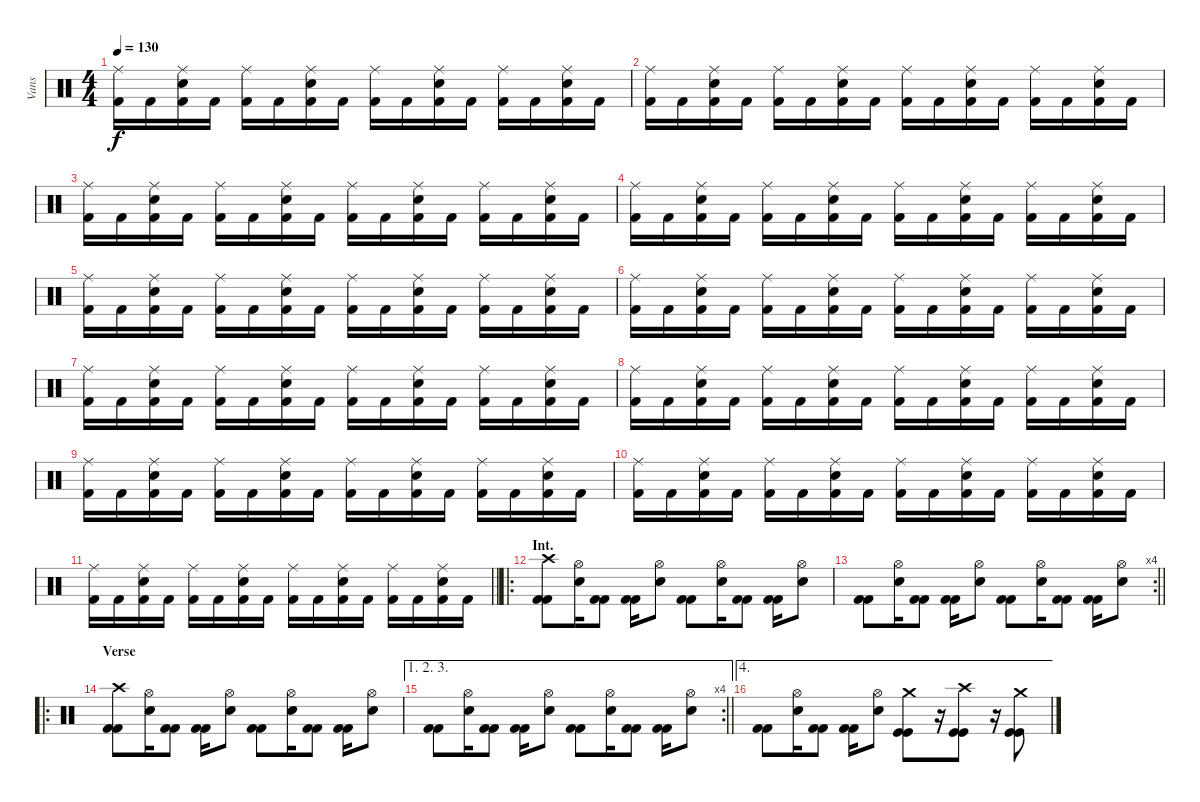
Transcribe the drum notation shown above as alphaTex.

\track ("Vans" "Vans") {instrument percussion}
\staff {score}
\articulation defaults
\ts (4 4)
\tempo 130
\clef neutral
\ks c
("Ride (middle)" "Kick (hit) 2").16{dy f} "Kick (hit) 2".16 ("Ride (middle)" "Kick (hit) 2" "Snare (hit) 2").16 "Kick (hit) 2".16 ("Ride (middle)" "Kick (hit) 2").16 "Kick (hit) 2".16 ("Ride (middle)" "Kick (hit) 2" "Snare (hit) 2").16 "Kick (hit) 2".16 ("Ride (middle)" "Kick (hit) 2").16 "Kick (hit) 2".16 ("Ride (middle)" "Kick (hit) 2" "Snare (hit) 2").16 "Kick (hit) 2".16 ("Ride (middle)" "Kick (hit) 2").16 "Kick (hit) 2".16 ("Ride (middle)" "Kick (hit) 2" "Snare (hit) 2").16 "Kick (hit) 2".16 |
("Ride (middle)" "Kick (hit) 2").16 "Kick (hit) 2".16 ("Ride (middle)" "Kick (hit) 2" "Snare (hit) 2").16 "Kick (hit) 2".16 ("Ride (middle)" "Kick (hit) 2").16 "Kick (hit) 2".16 ("Ride (middle)" "Kick (hit) 2" "Snare (hit) 2").16 "Kick (hit) 2".16 ("Ride (middle)" "Kick (hit) 2").16 "Kick (hit) 2".16 ("Ride (middle)" "Kick (hit) 2" "Snare (hit) 2").16 "Kick (hit) 2".16 ("Ride (middle)" "Kick (hit) 2").16 "Kick (hit) 2".16 ("Ride (middle)" "Kick (hit) 2" "Snare (hit) 2").16 "Kick (hit) 2".16 |
("Ride (middle)" "Kick (hit) 2").16 "Kick (hit) 2".16 ("Ride (middle)" "Kick (hit) 2" "Snare (hit) 2").16 "Kick (hit) 2".16 ("Ride (middle)" "Kick (hit) 2").16 "Kick (hit) 2".16 ("Ride (middle)" "Kick (hit) 2" "Snare (hit) 2").16 "Kick (hit) 2".16 ("Ride (middle)" "Kick (hit) 2").16 "Kick (hit) 2".16 ("Ride (middle)" "Kick (hit) 2" "Snare (hit) 2").16 "Kick (hit) 2".16 ("Ride (middle)" "Kick (hit) 2").16 "Kick (hit) 2".16 ("Ride (middle)" "Kick (hit) 2" "Snare (hit) 2").16 "Kick (hit) 2".16 |
("Ride (middle)" "Kick (hit) 2").16 "Kick (hit) 2".16 ("Ride (middle)" "Kick (hit) 2" "Snare (hit) 2").16 "Kick (hit) 2".16 ("Ride (middle)" "Kick (hit) 2").16 "Kick (hit) 2".16 ("Ride (middle)" "Kick (hit) 2" "Snare (hit) 2").16 "Kick (hit) 2".16 ("Ride (middle)" "Kick (hit) 2").16 "Kick (hit) 2".16 ("Ride (middle)" "Kick (hit) 2" "Snare (hit) 2").16 "Kick (hit) 2".16 ("Ride (middle)" "Kick (hit) 2").16 "Kick (hit) 2".16 ("Ride (middle)" "Kick (hit) 2" "Snare (hit) 2").16 "Kick (hit) 2".16 |
("Ride (middle)" "Kick (hit) 2").16 "Kick (hit) 2".16 ("Ride (middle)" "Kick (hit) 2" "Snare (hit) 2").16 "Kick (hit) 2".16 ("Ride (middle)" "Kick (hit) 2").16 "Kick (hit) 2".16 ("Ride (middle)" "Kick (hit) 2" "Snare (hit) 2").16 "Kick (hit) 2".16 ("Ride (middle)" "Kick (hit) 2").16 "Kick (hit) 2".16 ("Ride (middle)" "Kick (hit) 2" "Snare (hit) 2").16 "Kick (hit) 2".16 ("Ride (middle)" "Kick (hit) 2").16 "Kick (hit) 2".16 ("Ride (middle)" "Kick (hit) 2" "Snare (hit) 2").16 "Kick (hit) 2".16 |
("Ride (middle)" "Kick (hit) 2").16 "Kick (hit) 2".16 ("Ride (middle)" "Kick (hit) 2" "Snare (hit) 2").16 "Kick (hit) 2".16 ("Ride (middle)" "Kick (hit) 2").16 "Kick (hit) 2".16 ("Ride (middle)" "Kick (hit) 2" "Snare (hit) 2").16 "Kick (hit) 2".16 ("Ride (middle)" "Kick (hit) 2").16 "Kick (hit) 2".16 ("Ride (middle)" "Kick (hit) 2" "Snare (hit) 2").16 "Kick (hit) 2".16 ("Ride (middle)" "Kick (hit) 2").16 "Kick (hit) 2".16 ("Ride (middle)" "Kick (hit) 2" "Snare (hit) 2").16 "Kick (hit) 2".16 |
("Ride (middle)" "Kick (hit) 2").16 "Kick (hit) 2".16 ("Ride (middle)" "Kick (hit) 2" "Snare (hit) 2").16 "Kick (hit) 2".16 ("Ride (middle)" "Kick (hit) 2").16 "Kick (hit) 2".16 ("Ride (middle)" "Kick (hit) 2" "Snare (hit) 2").16 "Kick (hit) 2".16 ("Ride (middle)" "Kick (hit) 2").16 "Kick (hit) 2".16 ("Ride (middle)" "Kick (hit) 2" "Snare (hit) 2").16 "Kick (hit) 2".16 ("Ride (middle)" "Kick (hit) 2").16 "Kick (hit) 2".16 ("Ride (middle)" "Kick (hit) 2" "Snare (hit) 2").16 "Kick (hit) 2".16 |
("Ride (middle)" "Kick (hit) 2").16 "Kick (hit) 2".16 ("Ride (middle)" "Kick (hit) 2" "Snare (hit) 2").16 "Kick (hit) 2".16 ("Ride (middle)" "Kick (hit) 2").16 "Kick (hit) 2".16 ("Ride (middle)" "Kick (hit) 2" "Snare (hit) 2").16 "Kick (hit) 2".16 ("Ride (middle)" "Kick (hit) 2").16 "Kick (hit) 2".16 ("Ride (middle)" "Kick (hit) 2" "Snare (hit) 2").16 "Kick (hit) 2".16 ("Ride (middle)" "Kick (hit) 2").16 "Kick (hit) 2".16 ("Ride (middle)" "Kick (hit) 2" "Snare (hit) 2").16 "Kick (hit) 2".16 |
("Ride (middle)" "Kick (hit) 2").16 "Kick (hit) 2".16 ("Ride (middle)" "Kick (hit) 2" "Snare (hit) 2").16 "Kick (hit) 2".16 ("Ride (middle)" "Kick (hit) 2").16 "Kick (hit) 2".16 ("Ride (middle)" "Kick (hit) 2" "Snare (hit) 2").16 "Kick (hit) 2".16 ("Ride (middle)" "Kick (hit) 2").16 "Kick (hit) 2".16 ("Ride (middle)" "Kick (hit) 2" "Snare (hit) 2").16 "Kick (hit) 2".16 ("Ride (middle)" "Kick (hit) 2").16 "Kick (hit) 2".16 ("Ride (middle)" "Kick (hit) 2" "Snare (hit) 2").16 "Kick (hit) 2".16 |
("Ride (middle)" "Kick (hit) 2").16 "Kick (hit) 2".16 ("Ride (middle)" "Kick (hit) 2" "Snare (hit) 2").16 "Kick (hit) 2".16 ("Ride (middle)" "Kick (hit) 2").16 "Kick (hit) 2".16 ("Ride (middle)" "Kick (hit) 2" "Snare (hit) 2").16 "Kick (hit) 2".16 ("Ride (middle)" "Kick (hit) 2").16 "Kick (hit) 2".16 ("Ride (middle)" "Kick (hit) 2" "Snare (hit) 2").16 "Kick (hit) 2".16 ("Ride (middle)" "Kick (hit) 2").16 "Kick (hit) 2".16 ("Ride (middle)" "Kick (hit) 2" "Snare (hit) 2").16 "Kick (hit) 2".16 |
\barLineRight lightlight
("Ride (middle)" "Kick (hit) 2").16 "Kick (hit) 2".16 ("Ride (middle)" "Kick (hit) 2" "Snare (hit) 2").16 "Kick (hit) 2".16 ("Ride (middle)" "Kick (hit) 2").16 "Kick (hit) 2".16 ("Ride (middle)" "Kick (hit) 2" "Snare (hit) 2").16 "Kick (hit) 2".16 ("Ride (middle)" "Kick (hit) 2").16 "Kick (hit) 2".16 ("Ride (middle)" "Kick (hit) 2" "Snare (hit) 2").16 "Kick (hit) 2".16 ("Ride (middle)" "Kick (hit) 2").16 "Kick (hit) 2".16 ("Ride (middle)" "Kick (hit) 2" "Snare (hit) 2").16 "Kick (hit) 2".16 |
\ro
\section ("" "Int.")
("Crash high (hit)" "Kick (hit) 2" "Kick (hit) 2").8 ("Hi-Hat (open)" "Snare (hit) 2").16 ("Kick (hit) 2" "Kick (hit) 2").8 ("Kick (hit) 2" "Kick (hit) 2").16 ("Hi-Hat (open)" "Snare (hit) 2").8 ("Kick (hit) 2" "Kick (hit) 2").8 ("Hi-Hat (open)" "Snare (hit) 2").16 ("Kick (hit) 2" "Kick (hit) 2").8 ("Kick (hit) 2" "Kick (hit) 2").16 ("Hi-Hat (open)" "Snare (hit) 2").8 |
\rc 4
\barLineRight lightlight
("Kick (hit) 2" "Kick (hit) 2").8 ("Hi-Hat (open)" "Snare (hit) 2").16 ("Kick (hit) 2" "Kick (hit) 2").8 ("Kick (hit) 2" "Kick (hit) 2").16 ("Hi-Hat (open)" "Snare (hit) 2").8 ("Kick (hit) 2" "Kick (hit) 2").8 ("Hi-Hat (open)" "Snare (hit) 2").16 ("Kick (hit) 2" "Kick (hit) 2").8 ("Kick (hit) 2" "Kick (hit) 2").16 ("Hi-Hat (open)" "Snare (hit) 2").8 |
\ro
\section ("" "Verse")
("Crash high (hit)" "Kick (hit) 2" "Kick (hit) 2").8 ("Hi-Hat (open)" "Snare (hit) 2").16 ("Kick (hit) 2" "Kick (hit) 2").8 ("Kick (hit) 2" "Kick (hit) 2").16 ("Hi-Hat (open)" "Snare (hit) 2").8 ("Kick (hit) 2" "Kick (hit) 2").8 ("Hi-Hat (open)" "Snare (hit) 2").16 ("Kick (hit) 2" "Kick (hit) 2").8 ("Kick (hit) 2" "Kick (hit) 2").16 ("Hi-Hat (open)" "Snare (hit) 2").8 |
\ae (1 2 3)
\rc 4
\barLineRight lightlight
("Kick (hit) 2" "Kick (hit) 2").8 ("Hi-Hat (open)" "Snare (hit) 2").16 ("Kick (hit) 2" "Kick (hit) 2").8 ("Kick (hit) 2" "Kick (hit) 2").16 ("Hi-Hat (open)" "Snare (hit) 2").8 ("Kick (hit) 2" "Kick (hit) 2").8 ("Hi-Hat (open)" "Snare (hit) 2").16 ("Kick (hit) 2" "Kick (hit) 2").8 ("Kick (hit) 2" "Kick (hit) 2").16 ("Hi-Hat (open)" "Snare (hit) 2").8 |
\ae 4
("Kick (hit) 2" "Kick (hit) 2").8 ("Hi-Hat (open)" "Snare (hit) 2").16 ("Kick (hit) 2" "Kick (hit) 2").8 ("Kick (hit) 2" "Kick (hit) 2").16 ("Hi-Hat (open)" "Snare (hit) 2").8 ("Crash medium (hit)" "Kick (hit)" "Kick (hit)").8 r.16 ("Crash high (hit)" "Kick (hit)" "Kick (hit)").8 r.16 ("Crash medium (hit)" "Kick (hit)" "Kick (hit)").8
